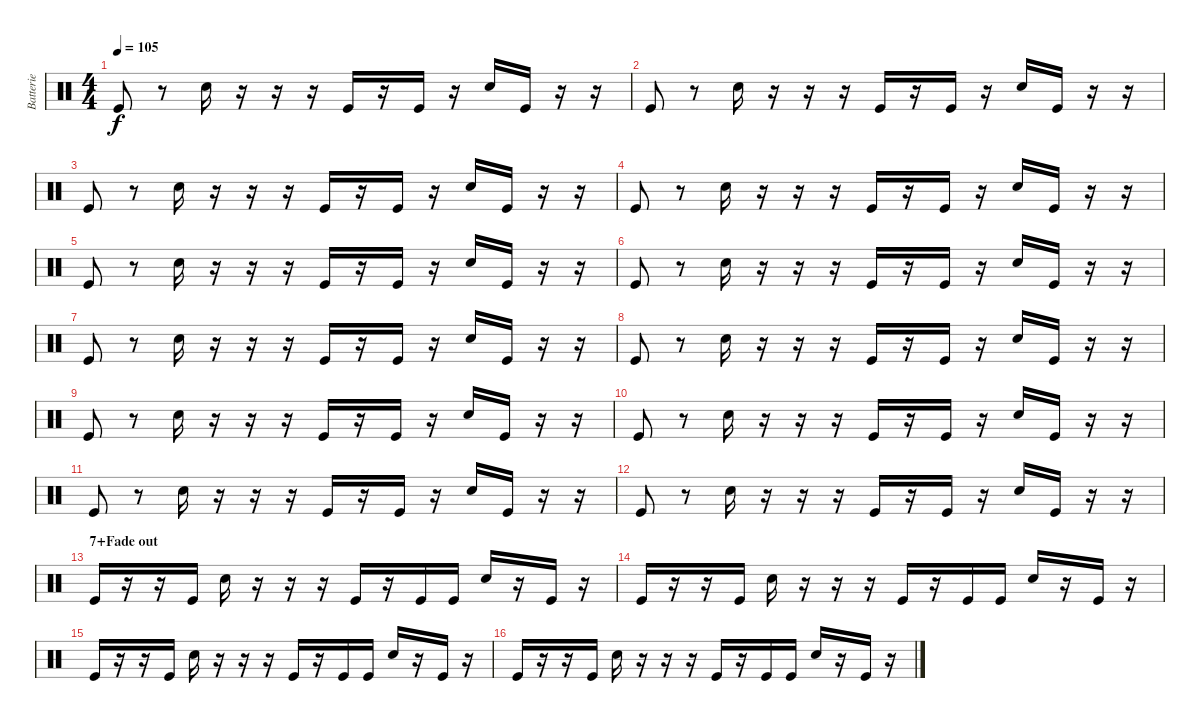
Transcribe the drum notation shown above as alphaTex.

\track ("Batterie" "Batterie") {instrument percussion}
\staff {score}
\articulation defaults
\ts (4 4)
\tempo 105
\clef neutral
\ks c "Kick (hit)".8{dy f}
r.8 "Electric Snare (hit)".16 r.16 r.16 r.16 "Kick (hit)".16 r.16 "Kick (hit)".16 r.16 "Electric Snare (hit)".16 "Kick (hit)".16 r.16 r.16 |
"Kick (hit)".8 r.8 "Electric Snare (hit)".16 r.16 r.16 r.16 "Kick (hit)".16 r.16 "Kick (hit)".16 r.16 "Electric Snare (hit)".16 "Kick (hit)".16 r.16 r.16 |
"Kick (hit)".8 r.8 "Electric Snare (hit)".16 r.16 r.16 r.16 "Kick (hit)".16 r.16 "Kick (hit)".16 r.16 "Electric Snare (hit)".16 "Kick (hit)".16 r.16 r.16 |
"Kick (hit)".8 r.8 "Electric Snare (hit)".16 r.16 r.16 r.16 "Kick (hit)".16 r.16 "Kick (hit)".16 r.16 "Electric Snare (hit)".16 "Kick (hit)".16 r.16 r.16 |
"Kick (hit)".8 r.8 "Electric Snare (hit)".16 r.16 r.16 r.16 "Kick (hit)".16 r.16 "Kick (hit)".16 r.16 "Electric Snare (hit)".16 "Kick (hit)".16 r.16 r.16 |
"Kick (hit)".8 r.8 "Electric Snare (hit)".16 r.16 r.16 r.16 "Kick (hit)".16 r.16 "Kick (hit)".16 r.16 "Electric Snare (hit)".16 "Kick (hit)".16 r.16 r.16 |
"Kick (hit)".8 r.8 "Electric Snare (hit)".16 r.16 r.16 r.16 "Kick (hit)".16 r.16 "Kick (hit)".16 r.16 "Electric Snare (hit)".16 "Kick (hit)".16 r.16 r.16 |
"Kick (hit)".8 r.8 "Electric Snare (hit)".16 r.16 r.16 r.16 "Kick (hit)".16 r.16 "Kick (hit)".16 r.16 "Electric Snare (hit)".16 "Kick (hit)".16 r.16 r.16 |
"Kick (hit)".8 r.8 "Electric Snare (hit)".16 r.16 r.16 r.16 "Kick (hit)".16 r.16 "Kick (hit)".16 r.16 "Electric Snare (hit)".16 "Kick (hit)".16 r.16 r.16 |
"Kick (hit)".8 r.8 "Electric Snare (hit)".16 r.16 r.16 r.16 "Kick (hit)".16 r.16 "Kick (hit)".16 r.16 "Electric Snare (hit)".16 "Kick (hit)".16 r.16 r.16 |
"Kick (hit)".8 r.8 "Electric Snare (hit)".16 r.16 r.16 r.16 "Kick (hit)".16 r.16 "Kick (hit)".16 r.16 "Electric Snare (hit)".16 "Kick (hit)".16 r.16 r.16 |
"Kick (hit)".8 r.8 "Electric Snare (hit)".16 r.16 r.16 r.16 "Kick (hit)".16 r.16 "Kick (hit)".16 r.16 "Electric Snare (hit)".16 "Kick (hit)".16 r.16 r.16 |
\section ("" "7+Fade out")
"Kick (hit)".16 r.16 r.16 "Kick (hit)".16 "Electric Snare (hit)".16 r.16 r.16 r.16 "Kick (hit)".16 r.16 "Kick (hit)".16 "Kick (hit)".16 "Electric Snare (hit)".16 r.16 "Kick (hit)".16 r.16 |
"Kick (hit)".16 r.16 r.16 "Kick (hit)".16 "Electric Snare (hit)".16 r.16 r.16 r.16 "Kick (hit)".16 r.16 "Kick (hit)".16 "Kick (hit)".16 "Electric Snare (hit)".16 r.16 "Kick (hit)".16 r.16 |
"Kick (hit)".16 r.16 r.16 "Kick (hit)".16 "Electric Snare (hit)".16 r.16 r.16 r.16 "Kick (hit)".16 r.16 "Kick (hit)".16 "Kick (hit)".16 "Electric Snare (hit)".16 r.16 "Kick (hit)".16 r.16 |
"Kick (hit)".16 r.16 r.16 "Kick (hit)".16 "Electric Snare (hit)".16 r.16 r.16 r.16 "Kick (hit)".16 r.16 "Kick (hit)".16 "Kick (hit)".16 "Electric Snare (hit)".16 r.16 "Kick (hit)".16 r.16
